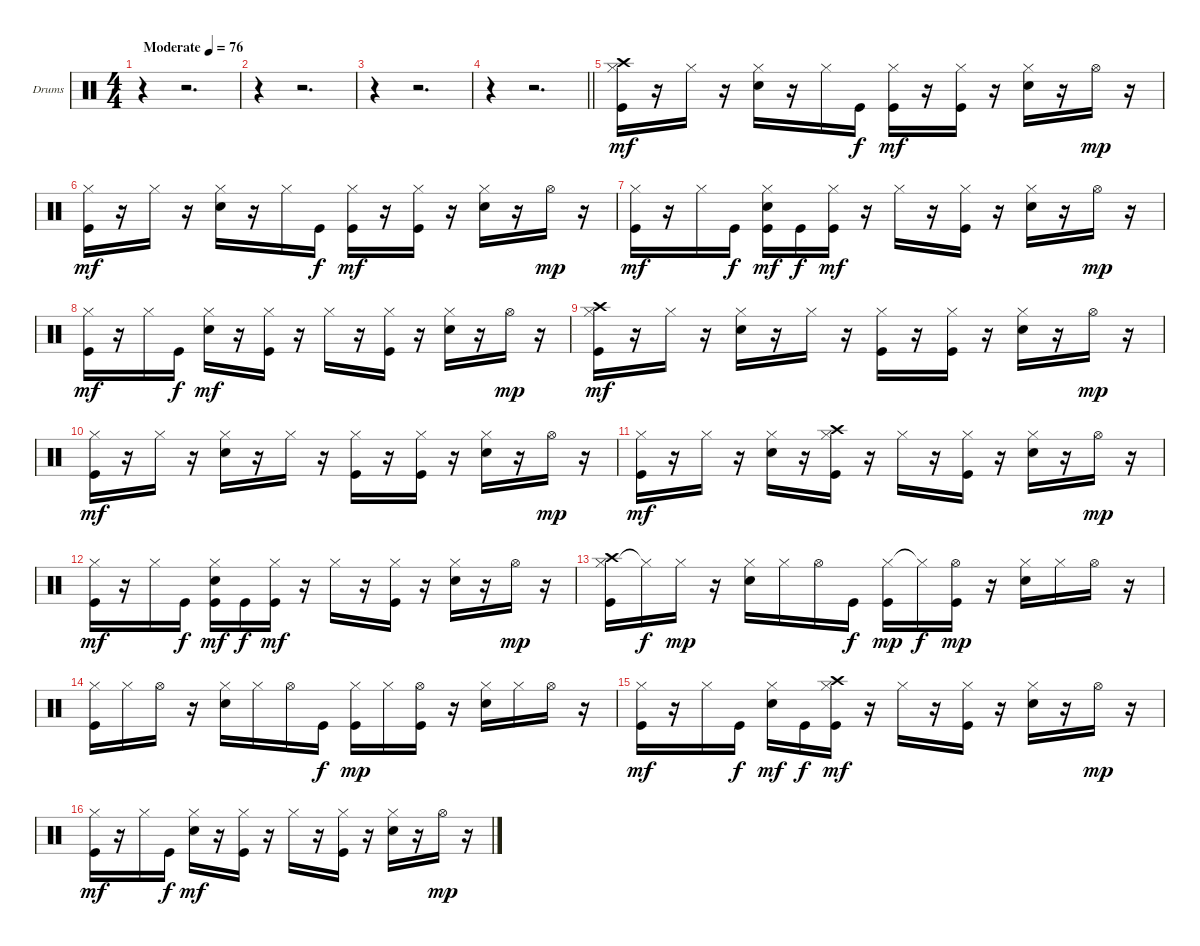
\bracketExtendMode groupsimilarinstruments
\firstSystemTrackNameOrientation horizontal
\otherSystemsTrackNameOrientation horizontal
\track ("Drumkit" "Drums") {instrument percussion}
\staff {score}
\articulation defaults
\ts (4 4)
\beaming (8 2 2 2 2)
\tempo (76 "Moderate")
\clef neutral
\ks c
r.4{dy mf} r.2{d} |
r.4 r.2{d} |
r.4 r.2{d} |
\barLineRight lightlight
r.4 r.2{d} |
("Hi-Hat (closed)" "Crash high (hit)" "Kick (hit)").16 r.16 "Hi-Hat (closed)".16 r.16 ("Hi-Hat (closed)" "Snare (hit) 2").16 r.16 "Hi-Hat (closed)".16 "Kick (hit)".16{dy f} ("Hi-Hat (closed)" "Kick (hit)").16{dy mf} r.16 ("Hi-Hat (closed)" "Kick (hit)").16 r.16 ("Hi-Hat (closed)" "Snare (hit) 2").16 r.16 "Hi-Hat (open)".16{dy mp} r.16 |
("Hi-Hat (closed)" "Kick (hit)").16{dy mf} r.16 "Hi-Hat (closed)".16 r.16 ("Hi-Hat (closed)" "Snare (hit) 2").16 r.16 "Hi-Hat (closed)".16 "Kick (hit)".16{dy f} ("Hi-Hat (closed)" "Kick (hit)").16{dy mf} r.16 ("Hi-Hat (closed)" "Kick (hit)").16 r.16 ("Hi-Hat (closed)" "Snare (hit) 2").16 r.16 "Hi-Hat (open)".16{dy mp} r.16 |
("Hi-Hat (closed)" "Kick (hit)").16{dy mf} r.16 "Hi-Hat (closed)".16 "Kick (hit)".16{dy f} ("Hi-Hat (closed)" "Snare (hit) 2" "Kick (hit)").16{dy mf} "Kick (hit)".16{dy f} ("Hi-Hat (closed)" "Kick (hit)").16{dy mf} r.16 "Hi-Hat (closed)".16 r.16 ("Hi-Hat (closed)" "Kick (hit)").16 r.16 ("Hi-Hat (closed)" "Snare (hit) 2").16 r.16 "Hi-Hat (open)".16{dy mp} r.16 |
("Hi-Hat (closed)" "Kick (hit)").16{dy mf} r.16 "Hi-Hat (closed)".16 "Kick (hit)".16{dy f} ("Hi-Hat (closed)" "Snare (hit) 2").16{dy mf} r.16 ("Hi-Hat (closed)" "Kick (hit)").16 r.16 "Hi-Hat (closed)".16 r.16 ("Hi-Hat (closed)" "Kick (hit)").16 r.16 ("Hi-Hat (closed)" "Snare (hit) 2").16 r.16 "Hi-Hat (open)".16{dy mp} r.16 |
("Hi-Hat (closed)" "Crash high (hit)" "Kick (hit)").16{dy mf} r.16 "Hi-Hat (closed)".16 r.16 ("Hi-Hat (closed)" "Snare (hit) 2").16 r.16 "Hi-Hat (closed)".16 r.16 ("Hi-Hat (closed)" "Kick (hit)").16 r.16 ("Hi-Hat (closed)" "Kick (hit)").16 r.16 ("Hi-Hat (closed)" "Snare (hit) 2").16 r.16 "Hi-Hat (open)".16{dy mp} r.16 |
("Hi-Hat (closed)" "Kick (hit)").16{dy mf} r.16 "Hi-Hat (closed)".16 r.16 ("Hi-Hat (closed)" "Snare (hit) 2").16 r.16 "Hi-Hat (closed)".16 r.16 ("Hi-Hat (closed)" "Kick (hit)").16 r.16 ("Hi-Hat (closed)" "Kick (hit)").16 r.16 ("Hi-Hat (closed)" "Snare (hit) 2").16 r.16 "Hi-Hat (open)".16{dy mp} r.16 |
("Hi-Hat (closed)" "Kick (hit)").16{dy mf} r.16 "Hi-Hat (closed)".16 r.16 ("Hi-Hat (closed)" "Snare (hit) 2").16 r.16 ("Hi-Hat (closed)" "Crash high (hit)" "Kick (hit)").16 r.16 "Hi-Hat (closed)".16 r.16 ("Hi-Hat (closed)" "Kick (hit)").16 r.16 ("Hi-Hat (closed)" "Snare (hit) 2").16 r.16 "Hi-Hat (open)".16{dy mp} r.16 |
("Hi-Hat (closed)" "Kick (hit)").16{dy mf} r.16 "Hi-Hat (closed)".16 "Kick (hit)".16{dy f} ("Hi-Hat (closed)" "Snare (hit) 2" "Kick (hit)").16{dy mf} "Kick (hit)".16{dy f} ("Hi-Hat (closed)" "Kick (hit)").16{dy mf} r.16 "Hi-Hat (closed)".16 r.16 ("Hi-Hat (closed)" "Kick (hit)").16 r.16 ("Hi-Hat (closed)" "Snare (hit) 2").16 r.16 "Hi-Hat (open)".16{dy mp} r.16 |
("Hi-Hat (closed)" "Crash high (hit)" "Kick (hit)").16 "Hi-Hat (closed)"{t}.16{dy f} "Hi-Hat (closed)".16{dy mp} r.16 ("Hi-Hat (closed)" "Snare (hit) 2").16 "Hi-Hat (closed)".16 "Hi-Hat (open)".16 "Kick (hit)".16{dy f} ("Hi-Hat (closed)" "Kick (hit)").16{dy mp} "Hi-Hat (closed)"{t}.16{dy f} ("Hi-Hat (open)" "Kick (hit)").16{dy mp} r.16 ("Hi-Hat (closed)" "Snare (hit) 2").16 "Hi-Hat (closed)".16 "Hi-Hat (open)".16 r.16 |
("Hi-Hat (closed)" "Kick (hit)").16 "Hi-Hat (closed)".16 "Hi-Hat (open)".16 r.16 ("Hi-Hat (closed)" "Snare (hit) 2").16 "Hi-Hat (closed)".16 "Hi-Hat (open)".16 "Kick (hit)".16{dy f} ("Hi-Hat (closed)" "Kick (hit)").16{dy mp} "Hi-Hat (closed)".16 ("Hi-Hat (open)" "Kick (hit)").16 r.16 ("Hi-Hat (closed)" "Snare (hit) 2").16 "Hi-Hat (closed)".16 "Hi-Hat (open)".16 r.16 |
("Hi-Hat (closed)" "Kick (hit)").16{dy mf} r.16 "Hi-Hat (closed)".16 "Kick (hit)".16{dy f} ("Hi-Hat (closed)" "Snare (hit) 2").16{dy mf} "Kick (hit)".16{dy f} ("Hi-Hat (closed)" "Crash high (hit)" "Kick (hit)").16{dy mf} r.16 "Hi-Hat (closed)".16 r.16 ("Hi-Hat (closed)" "Kick (hit)").16 r.16 ("Hi-Hat (closed)" "Snare (hit) 2").16 r.16 "Hi-Hat (open)".16{dy mp} r.16 |
("Hi-Hat (closed)" "Kick (hit)").16{dy mf} r.16 "Hi-Hat (closed)".16 "Kick (hit)".16{dy f} ("Hi-Hat (closed)" "Snare (hit) 2").16{dy mf} r.16 ("Hi-Hat (closed)" "Kick (hit)").16 r.16 "Hi-Hat (closed)".16 r.16 ("Hi-Hat (closed)" "Kick (hit)").16 r.16 ("Hi-Hat (closed)" "Snare (hit) 2").16 r.16 "Hi-Hat (open)".16{dy mp} r.16
